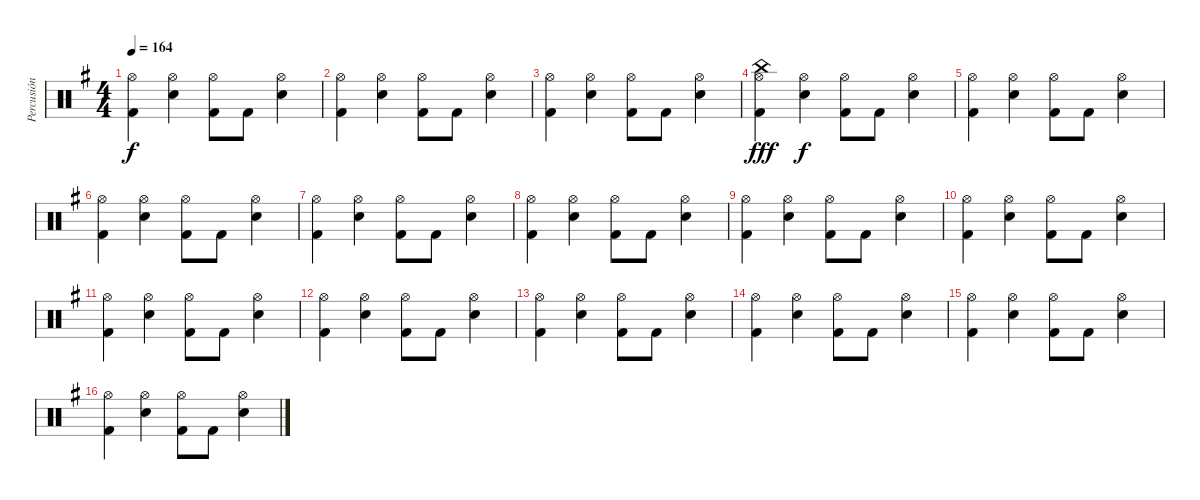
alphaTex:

\track ("Percusión" "Percusión") {instrument percussion}
\staff {score}
\articulation defaults
\ts (4 4)
\tempo 164
\clef neutral
\ks g
("Hi-Hat (open)" "Kick (hit) 2").4{dy f} ("Hi-Hat (open)" "Snare (hit) 2").4 ("Hi-Hat (open)" "Kick (hit) 2").8 "Kick (hit) 2".8 ("Hi-Hat (open)" "Snare (hit) 2").4 |
("Hi-Hat (open)" "Kick (hit) 2").4 ("Hi-Hat (open)" "Snare (hit) 2").4 ("Hi-Hat (open)" "Kick (hit) 2").8 "Kick (hit) 2".8 ("Hi-Hat (open)" "Snare (hit) 2").4 |
("Hi-Hat (open)" "Kick (hit) 2").4 ("Hi-Hat (open)" "Snare (hit) 2").4 ("Hi-Hat (open)" "Kick (hit) 2").8 "Kick (hit) 2".8 ("Hi-Hat (open)" "Snare (hit) 2").4 |
("China (hit)" "Hi-Hat (open)" "Kick (hit) 2").4{dy fff} ("Hi-Hat (open)" "Snare (hit) 2").4{dy f} ("Hi-Hat (open)" "Kick (hit) 2").8 "Kick (hit) 2".8 ("Hi-Hat (open)" "Snare (hit) 2").4 |
("Hi-Hat (open)" "Kick (hit) 2").4 ("Hi-Hat (open)" "Snare (hit) 2").4 ("Hi-Hat (open)" "Kick (hit) 2").8 "Kick (hit) 2".8 ("Hi-Hat (open)" "Snare (hit) 2").4 |
("Hi-Hat (open)" "Kick (hit) 2").4 ("Hi-Hat (open)" "Snare (hit) 2").4 ("Hi-Hat (open)" "Kick (hit) 2").8 "Kick (hit) 2".8 ("Hi-Hat (open)" "Snare (hit) 2").4 |
("Hi-Hat (open)" "Kick (hit) 2").4 ("Hi-Hat (open)" "Snare (hit) 2").4 ("Hi-Hat (open)" "Kick (hit) 2").8 "Kick (hit) 2".8 ("Hi-Hat (open)" "Snare (hit) 2").4 |
("Hi-Hat (open)" "Kick (hit) 2").4 ("Hi-Hat (open)" "Snare (hit) 2").4 ("Hi-Hat (open)" "Kick (hit) 2").8 "Kick (hit) 2".8 ("Hi-Hat (open)" "Snare (hit) 2").4 |
("Hi-Hat (open)" "Kick (hit) 2").4 ("Hi-Hat (open)" "Snare (hit) 2").4 ("Hi-Hat (open)" "Kick (hit) 2").8 "Kick (hit) 2".8 ("Hi-Hat (open)" "Snare (hit) 2").4 |
("Hi-Hat (open)" "Kick (hit) 2").4 ("Hi-Hat (open)" "Snare (hit) 2").4 ("Hi-Hat (open)" "Kick (hit) 2").8 "Kick (hit) 2".8 ("Hi-Hat (open)" "Snare (hit) 2").4 |
("Hi-Hat (open)" "Kick (hit) 2").4 ("Hi-Hat (open)" "Snare (hit) 2").4 ("Hi-Hat (open)" "Kick (hit) 2").8 "Kick (hit) 2".8 ("Hi-Hat (open)" "Snare (hit) 2").4 |
("Hi-Hat (open)" "Kick (hit) 2").4 ("Hi-Hat (open)" "Snare (hit) 2").4 ("Hi-Hat (open)" "Kick (hit) 2").8 "Kick (hit) 2".8 ("Hi-Hat (open)" "Snare (hit) 2").4 |
("Hi-Hat (open)" "Kick (hit) 2").4 ("Hi-Hat (open)" "Snare (hit) 2").4 ("Hi-Hat (open)" "Kick (hit) 2").8 "Kick (hit) 2".8 ("Hi-Hat (open)" "Snare (hit) 2").4 |
("Hi-Hat (open)" "Kick (hit) 2").4 ("Hi-Hat (open)" "Snare (hit) 2").4 ("Hi-Hat (open)" "Kick (hit) 2").8 "Kick (hit) 2".8 ("Hi-Hat (open)" "Snare (hit) 2").4 |
("Hi-Hat (open)" "Kick (hit) 2").4 ("Hi-Hat (open)" "Snare (hit) 2").4 ("Hi-Hat (open)" "Kick (hit) 2").8 "Kick (hit) 2".8 ("Hi-Hat (open)" "Snare (hit) 2").4 |
("Hi-Hat (open)" "Kick (hit) 2").4 ("Hi-Hat (open)" "Snare (hit) 2").4 ("Hi-Hat (open)" "Kick (hit) 2").8 "Kick (hit) 2".8 ("Hi-Hat (open)" "Snare (hit) 2").4
